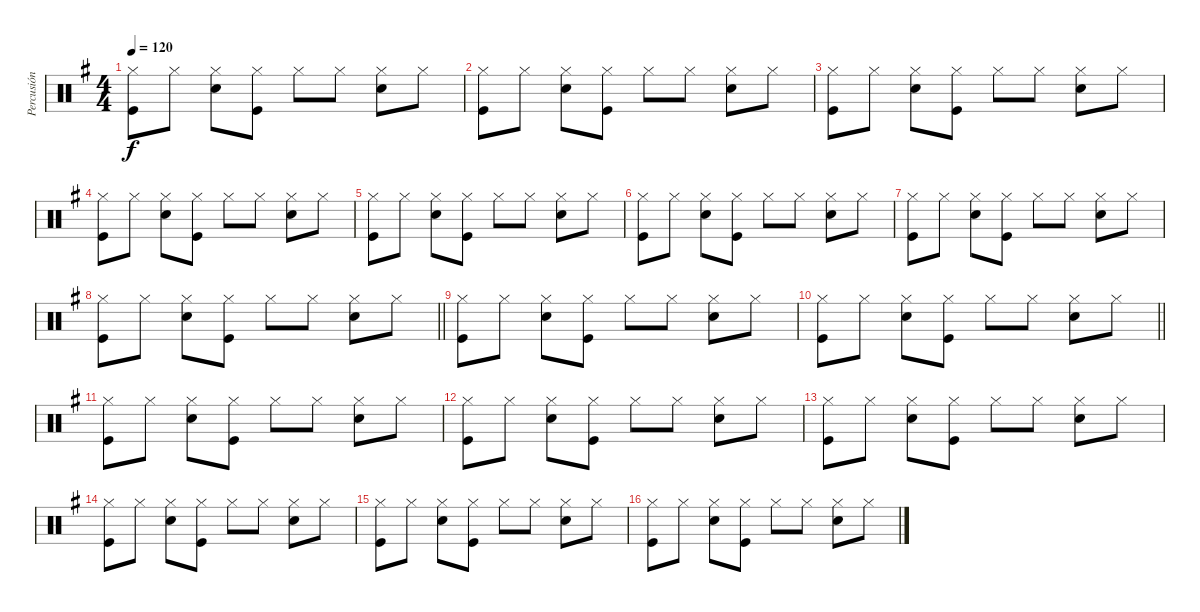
\track ("Percusión" "Percusión") {instrument percussion}
\staff {score}
\articulation defaults
\ts (4 4)
\tempo 120
\clef neutral
\ks g
("Hi-Hat (closed)" "Kick (hit)").8{dy f} "Hi-Hat (closed)".8 ("Hi-Hat (closed)" "Electric Snare (hit)").8 ("Hi-Hat (closed)" "Kick (hit)").8 "Hi-Hat (closed)".8 "Hi-Hat (closed)".8 ("Hi-Hat (closed)" "Electric Snare (hit)").8 "Hi-Hat (closed)".8 |
("Hi-Hat (closed)" "Kick (hit)").8 "Hi-Hat (closed)".8 ("Hi-Hat (closed)" "Electric Snare (hit)").8 ("Hi-Hat (closed)" "Kick (hit)").8 "Hi-Hat (closed)".8 "Hi-Hat (closed)".8 ("Hi-Hat (closed)" "Electric Snare (hit)").8 "Hi-Hat (closed)".8 |
("Hi-Hat (closed)" "Kick (hit)").8 "Hi-Hat (closed)".8 ("Hi-Hat (closed)" "Electric Snare (hit)").8 ("Hi-Hat (closed)" "Kick (hit)").8 "Hi-Hat (closed)".8 "Hi-Hat (closed)".8 ("Hi-Hat (closed)" "Electric Snare (hit)").8 "Hi-Hat (closed)".8 |
("Hi-Hat (closed)" "Kick (hit)").8 "Hi-Hat (closed)".8 ("Hi-Hat (closed)" "Electric Snare (hit)").8 ("Hi-Hat (closed)" "Kick (hit)").8 "Hi-Hat (closed)".8 "Hi-Hat (closed)".8 ("Hi-Hat (closed)" "Electric Snare (hit)").8 "Hi-Hat (closed)".8 |
("Hi-Hat (closed)" "Kick (hit)").8 "Hi-Hat (closed)".8 ("Hi-Hat (closed)" "Electric Snare (hit)").8 ("Hi-Hat (closed)" "Kick (hit)").8 "Hi-Hat (closed)".8 "Hi-Hat (closed)".8 ("Hi-Hat (closed)" "Electric Snare (hit)").8 "Hi-Hat (closed)".8 |
("Hi-Hat (closed)" "Kick (hit)").8 "Hi-Hat (closed)".8 ("Hi-Hat (closed)" "Electric Snare (hit)").8 ("Hi-Hat (closed)" "Kick (hit)").8 "Hi-Hat (closed)".8 "Hi-Hat (closed)".8 ("Hi-Hat (closed)" "Electric Snare (hit)").8 "Hi-Hat (closed)".8 |
("Hi-Hat (closed)" "Kick (hit)").8 "Hi-Hat (closed)".8 ("Hi-Hat (closed)" "Electric Snare (hit)").8 ("Hi-Hat (closed)" "Kick (hit)").8 "Hi-Hat (closed)".8 "Hi-Hat (closed)".8 ("Hi-Hat (closed)" "Electric Snare (hit)").8 "Hi-Hat (closed)".8 |
\barLineRight lightlight
("Hi-Hat (closed)" "Kick (hit)").8 "Hi-Hat (closed)".8 ("Hi-Hat (closed)" "Electric Snare (hit)").8 ("Hi-Hat (closed)" "Kick (hit)").8 "Hi-Hat (closed)".8 "Hi-Hat (closed)".8 ("Hi-Hat (closed)" "Electric Snare (hit)").8 "Hi-Hat (closed)".8 |
("Hi-Hat (closed)" "Kick (hit)").8 "Hi-Hat (closed)".8 ("Hi-Hat (closed)" "Electric Snare (hit)").8 ("Hi-Hat (closed)" "Kick (hit)").8 "Hi-Hat (closed)".8 "Hi-Hat (closed)".8 ("Hi-Hat (closed)" "Electric Snare (hit)").8 "Hi-Hat (closed)".8 |
\barLineRight lightlight
("Hi-Hat (closed)" "Kick (hit)").8 "Hi-Hat (closed)".8 ("Hi-Hat (closed)" "Electric Snare (hit)").8 ("Hi-Hat (closed)" "Kick (hit)").8 "Hi-Hat (closed)".8 "Hi-Hat (closed)".8 ("Hi-Hat (closed)" "Electric Snare (hit)").8 "Hi-Hat (closed)".8 |
("Hi-Hat (closed)" "Kick (hit)").8 "Hi-Hat (closed)".8 ("Hi-Hat (closed)" "Electric Snare (hit)").8 ("Hi-Hat (closed)" "Kick (hit)").8 "Hi-Hat (closed)".8 "Hi-Hat (closed)".8 ("Hi-Hat (closed)" "Electric Snare (hit)").8 "Hi-Hat (closed)".8 |
("Hi-Hat (closed)" "Kick (hit)").8 "Hi-Hat (closed)".8 ("Hi-Hat (closed)" "Electric Snare (hit)").8 ("Hi-Hat (closed)" "Kick (hit)").8 "Hi-Hat (closed)".8 "Hi-Hat (closed)".8 ("Hi-Hat (closed)" "Electric Snare (hit)").8 "Hi-Hat (closed)".8 |
("Hi-Hat (closed)" "Kick (hit)").8 "Hi-Hat (closed)".8 ("Hi-Hat (closed)" "Electric Snare (hit)").8 ("Hi-Hat (closed)" "Kick (hit)").8 "Hi-Hat (closed)".8 "Hi-Hat (closed)".8 ("Hi-Hat (closed)" "Electric Snare (hit)").8 "Hi-Hat (closed)".8 |
("Hi-Hat (closed)" "Kick (hit)").8 "Hi-Hat (closed)".8 ("Hi-Hat (closed)" "Electric Snare (hit)").8 ("Hi-Hat (closed)" "Kick (hit)").8 "Hi-Hat (closed)".8 "Hi-Hat (closed)".8 ("Hi-Hat (closed)" "Electric Snare (hit)").8 "Hi-Hat (closed)".8 |
("Hi-Hat (closed)" "Kick (hit)").8 "Hi-Hat (closed)".8 ("Hi-Hat (closed)" "Electric Snare (hit)").8 ("Hi-Hat (closed)" "Kick (hit)").8 "Hi-Hat (closed)".8 "Hi-Hat (closed)".8 ("Hi-Hat (closed)" "Electric Snare (hit)").8 "Hi-Hat (closed)".8 |
("Hi-Hat (closed)" "Kick (hit)").8 "Hi-Hat (closed)".8 ("Hi-Hat (closed)" "Electric Snare (hit)").8 ("Hi-Hat (closed)" "Kick (hit)").8 "Hi-Hat (closed)".8 "Hi-Hat (closed)".8 ("Hi-Hat (closed)" "Electric Snare (hit)").8 "Hi-Hat (closed)".8
